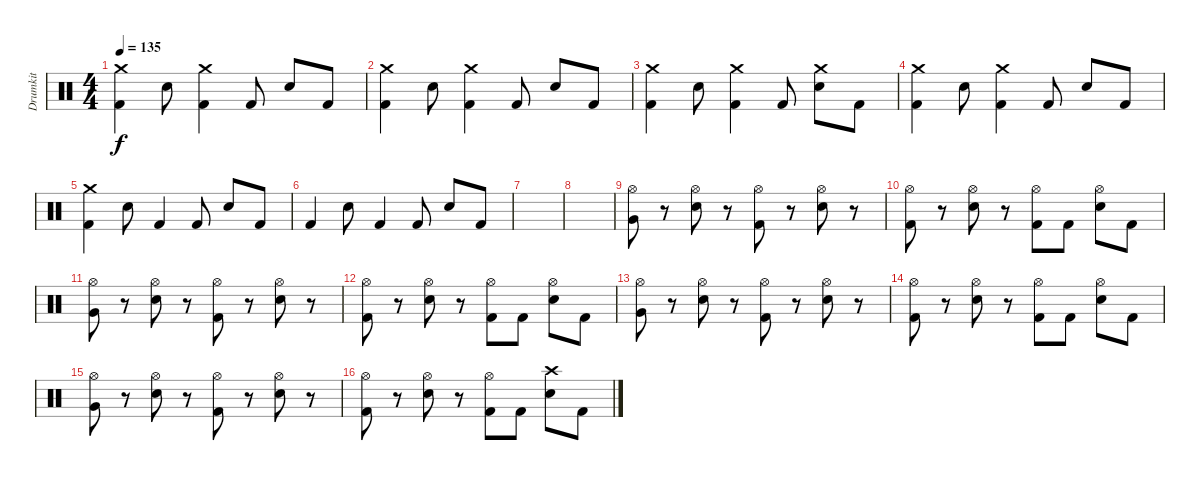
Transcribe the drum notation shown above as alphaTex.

\track ("Drumkit" "Drumkit") {instrument percussion}
\staff {score}
\articulation defaults
\ts (4 4)
\tempo 135
\clef neutral
\ks c
("Crash medium (hit)" "Kick (hit) 2").4{dy f} "Snare (hit) 2".8 ("Crash medium (hit)" "Kick (hit) 2").4 "Kick (hit) 2".8 "Snare (hit) 2".8 "Kick (hit) 2".8 |
("Crash medium (hit)" "Kick (hit) 2").4 "Snare (hit) 2".8 ("Crash medium (hit)" "Kick (hit) 2").4 "Kick (hit) 2".8 "Snare (hit) 2".8 "Kick (hit) 2".8 |
("Crash medium (hit)" "Kick (hit) 2").4 "Snare (hit) 2".8 ("Crash medium (hit)" "Kick (hit) 2").4 "Kick (hit) 2".8 ("Crash medium (hit)" "Snare (hit) 2").8 "Kick (hit) 2".8 |
("Crash medium (hit)" "Kick (hit) 2").4 "Snare (hit) 2".8 ("Crash medium (hit)" "Kick (hit) 2").4 "Kick (hit) 2".8 "Snare (hit) 2".8 "Kick (hit) 2".8 |
("Crash medium (hit)" "Kick (hit) 2").4 "Snare (hit) 2".8 "Kick (hit) 2".4 "Kick (hit) 2".8 "Snare (hit) 2".8 "Kick (hit) 2".8 |
"Kick (hit) 2".4 "Snare (hit) 2".8 "Kick (hit) 2".4 "Kick (hit) 2".8 "Snare (hit) 2".8 "Kick (hit) 2".8 |
|
|
("Hi-Hat (open)" "Very Low Tom (hit)").8 r.8 ("Hi-Hat (open)" "Snare (hit) 2").8 r.8 ("Hi-Hat (open)" "Kick (hit) 2").8 r.8 ("Hi-Hat (open)" "Snare (hit) 2").8 r.8 |
("Hi-Hat (open)" "Kick (hit) 2").8 r.8 ("Hi-Hat (open)" "Snare (hit) 2").8 r.8 ("Hi-Hat (open)" "Kick (hit) 2").8 "Kick (hit) 2".8 ("Hi-Hat (open)" "Snare (hit) 2").8 "Kick (hit) 2".8 |
("Hi-Hat (open)" "Very Low Tom (hit)").8 r.8 ("Hi-Hat (open)" "Snare (hit) 2").8 r.8 ("Hi-Hat (open)" "Kick (hit) 2").8 r.8 ("Hi-Hat (open)" "Snare (hit) 2").8 r.8 |
("Hi-Hat (open)" "Kick (hit) 2").8 r.8 ("Hi-Hat (open)" "Snare (hit) 2").8 r.8 ("Hi-Hat (open)" "Kick (hit) 2").8 "Kick (hit) 2".8 ("Hi-Hat (open)" "Snare (hit) 2").8 "Kick (hit) 2".8 |
("Hi-Hat (open)" "Very Low Tom (hit)").8 r.8 ("Hi-Hat (open)" "Snare (hit) 2").8 r.8 ("Hi-Hat (open)" "Kick (hit) 2").8 r.8 ("Hi-Hat (open)" "Snare (hit) 2").8 r.8 |
("Hi-Hat (open)" "Kick (hit) 2").8 r.8 ("Hi-Hat (open)" "Snare (hit) 2").8 r.8 ("Hi-Hat (open)" "Kick (hit) 2").8 "Kick (hit) 2".8 ("Hi-Hat (open)" "Snare (hit) 2").8 "Kick (hit) 2".8 |
("Hi-Hat (open)" "Very Low Tom (hit)").8 r.8 ("Hi-Hat (open)" "Snare (hit) 2").8 r.8 ("Hi-Hat (open)" "Kick (hit) 2").8 r.8 ("Hi-Hat (open)" "Snare (hit) 2").8 r.8 |
("Hi-Hat (open)" "Kick (hit) 2").8 r.8 ("Hi-Hat (open)" "Snare (hit) 2").8 r.8 ("Hi-Hat (open)" "Kick (hit) 2").8 "Kick (hit) 2".8 ("Crash high (hit)" "Snare (hit) 2").8 "Kick (hit) 2".8
